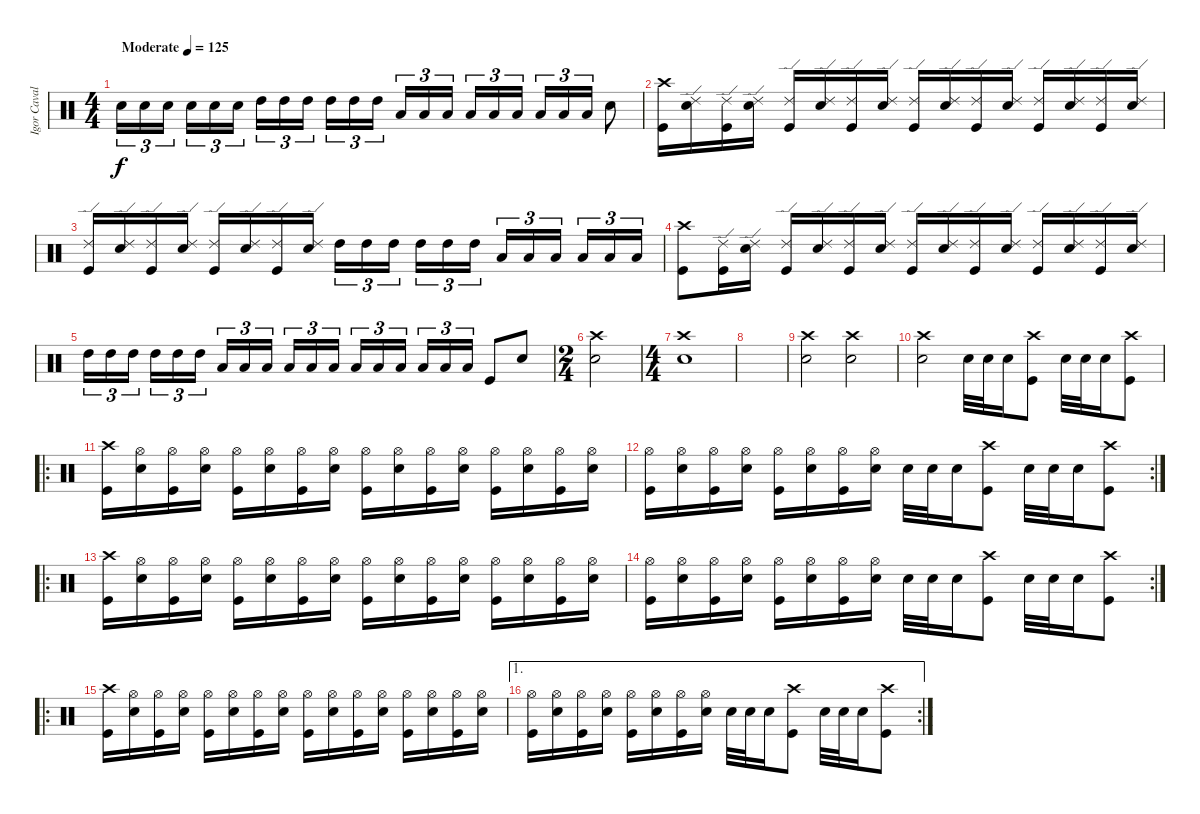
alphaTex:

\track ("Igor Cavalera" "Igor Caval") {instrument percussion}
\staff {score}
\articulation defaults
\ts (4 4)
\tempo (125 "Moderate")
\clef neutral
\ks c "Snare (hit) 2".16{tu (3 2) dy f} "Snare (hit) 2".16{tu (3 2)} "Snare (hit) 2".16{tu (3 2) beam splitsecondary} "Snare (hit) 2".16{tu (3 2)} "Snare (hit) 2".16{tu (3 2)} "Snare (hit) 2".16{tu (3 2)} "High Tom (hit)".16{tu (3 2)} "High Tom (hit)".16{tu (3 2)} "High Tom (hit)".16{tu (3 2) beam splitsecondary} "High Tom (hit)".16{tu (3 2)} "High Tom (hit)".16{tu (3 2)} "High Tom (hit)".16{tu (3 2)} "Low Tom (hit)".16{tu (3 2)} "Low Tom (hit)".16{tu (3 2)} "Low Tom (hit)".16{tu (3 2) beam splitsecondary} "Low Tom (hit)".16{tu (3 2)} "Low Tom (hit)".16{tu (3 2)} "Low Tom (hit)".16{tu (3 2)} "Low Floor Tom (hit)".16{tu (3 2)} "Low Floor Tom (hit)".16{tu (3 2)} "Low Floor Tom (hit)".16{tu (3 2)} "Snare (hit) 2".8
|
("Crash high (hit)" "Kick (hit)").16 ("Ride (edge) 2" "Snare (hit) 2").16 ("Ride (edge) 2" "Kick (hit)").16 ("Ride (edge) 2" "Snare (hit) 2").16 ("Ride (edge) 2" "Kick (hit)").16 ("Ride (edge) 2" "Snare (hit) 2").16 ("Ride (edge) 2" "Kick (hit)").16 ("Ride (edge) 2" "Snare (hit) 2").16 ("Ride (edge) 2" "Kick (hit)").16 ("Ride (edge) 2" "Snare (hit) 2").16 ("Ride (edge) 2" "Kick (hit)").16 ("Ride (edge) 2" "Snare (hit) 2").16 ("Ride (edge) 2" "Kick (hit)").16 ("Ride (edge) 2" "Snare (hit) 2").16 ("Ride (edge) 2" "Kick (hit)").16 ("Ride (edge) 2" "Snare (hit) 2").16 |
("Ride (edge) 2" "Kick (hit)").16 ("Ride (edge) 2" "Snare (hit) 2").16 ("Ride (edge) 2" "Kick (hit)").16 ("Ride (edge) 2" "Snare (hit) 2").16 ("Ride (edge) 2" "Kick (hit)").16 ("Ride (edge) 2" "Snare (hit) 2").16 ("Ride (edge) 2" "Kick (hit)").16 ("Ride (edge) 2" "Snare (hit) 2").16 "High Tom (hit)".16{tu (3 2)} "High Tom (hit)".16{tu (3 2)} "High Tom (hit)".16{tu (3 2) beam splitsecondary} "High Tom (hit)".16{tu (3 2)} "High Tom (hit)".16{tu (3 2)} "High Tom (hit)".16{tu (3 2)} "Low Tom (hit)".16{tu (3 2)} "Low Tom (hit)".16{tu (3 2)} "Low Tom (hit)".16{tu (3 2) beam splitsecondary} "Low Tom (hit)".16{tu (3 2)} "Low Tom (hit)".16{tu (3 2)} "Low Tom (hit)".16{tu (3 2)} |
("Crash high (hit)" "Kick (hit)").8 ("Ride (edge) 2" "Kick (hit)").16 ("Ride (edge) 2" "Snare (hit) 2").16 ("Ride (edge) 2" "Kick (hit)").16 ("Ride (edge) 2" "Snare (hit) 2").16 ("Ride (edge) 2" "Kick (hit)").16 ("Ride (edge) 2" "Snare (hit) 2").16 ("Ride (edge) 2" "Kick (hit)").16 ("Ride (edge) 2" "Snare (hit) 2").16 ("Ride (edge) 2" "Kick (hit)").16 ("Ride (edge) 2" "Snare (hit) 2").16 ("Ride (edge) 2" "Kick (hit)").16 ("Ride (edge) 2" "Snare (hit) 2").16 ("Ride (edge) 2" "Kick (hit)").16 ("Ride (edge) 2" "Snare (hit) 2").16 |
"High Tom (hit)".16{tu (3 2)} "High Tom (hit)".16{tu (3 2)} "High Tom (hit)".16{tu (3 2) beam splitsecondary} "High Tom (hit)".16{tu (3 2)} "High Tom (hit)".16{tu (3 2)} "High Tom (hit)".16{tu (3 2)} "Low Tom (hit)".16{tu (3 2)} "Low Tom (hit)".16{tu (3 2)} "Low Tom (hit)".16{tu (3 2) beam splitsecondary} "Low Tom (hit)".16{tu (3 2)} "Low Tom (hit)".16{tu (3 2)} "Low Tom (hit)".16{tu (3 2)} "Low Floor Tom (hit)".16{tu (3 2)} "Low Floor Tom (hit)".16{tu (3 2)} "Low Floor Tom (hit)".16{tu (3 2) beam splitsecondary} "Low Floor Tom (hit)".16{tu (3 2)} "Low Floor Tom (hit)".16{tu (3 2)} "Low Floor Tom (hit)".16{tu (3 2)} "Kick (hit)".8 "Snare (hit) 2".8 |
\ts (2 4)
("Crash high (hit)" "Snare (hit) 2").2 |
\ts (4 4)
("Crash high (hit)" "Snare (hit) 2").1 |
|
("Crash high (hit)" "Snare (hit) 2").2 ("Crash high (hit)" "Snare (hit) 2").2 |
("Crash high (hit)" "Snare (hit) 2").2 "Snare (hit) 2".32 "Snare (hit) 2".32 "Snare (hit) 2".16 ("Crash high (hit)" "Kick (hit)").8 "Snare (hit) 2".32 "Snare (hit) 2".32 "Snare (hit) 2".16 ("Crash high (hit)" "Kick (hit)").8 |
\ro
("Crash high (hit)" "Kick (hit)").16 ("Hi-Hat (open)" "Snare (hit) 2").16 ("Hi-Hat (open)" "Kick (hit)").16 ("Hi-Hat (open)" "Snare (hit) 2").16 ("Hi-Hat (open)" "Kick (hit)").16 ("Hi-Hat (open)" "Snare (hit) 2").16 ("Hi-Hat (open)" "Kick (hit)").16 ("Hi-Hat (open)" "Snare (hit) 2").16 ("Hi-Hat (open)" "Kick (hit)").16 ("Hi-Hat (open)" "Snare (hit) 2").16 ("Hi-Hat (open)" "Kick (hit)").16 ("Hi-Hat (open)" "Snare (hit) 2").16 ("Hi-Hat (open)" "Kick (hit)").16 ("Hi-Hat (open)" "Snare (hit) 2").16 ("Hi-Hat (open)" "Kick (hit)").16 ("Hi-Hat (open)" "Snare (hit) 2").16 |
\rc 2
("Hi-Hat (open)" "Kick (hit)").16 ("Hi-Hat (open)" "Snare (hit) 2").16 ("Hi-Hat (open)" "Kick (hit)").16 ("Hi-Hat (open)" "Snare (hit) 2").16 ("Hi-Hat (open)" "Kick (hit)").16 ("Hi-Hat (open)" "Snare (hit) 2").16 ("Hi-Hat (open)" "Kick (hit)").16 ("Hi-Hat (open)" "Snare (hit) 2").16 "Snare (hit) 2".32 "Snare (hit) 2".32 "Snare (hit) 2".16 ("Crash high (hit)" "Kick (hit)").8 "Snare (hit) 2".32 "Snare (hit) 2".32 "Snare (hit) 2".16 ("Crash high (hit)" "Kick (hit)").8 |
\ro
("Crash high (hit)" "Kick (hit)").16 ("Hi-Hat (open)" "Snare (hit) 2").16 ("Hi-Hat (open)" "Kick (hit)").16 ("Hi-Hat (open)" "Snare (hit) 2").16 ("Hi-Hat (open)" "Kick (hit)").16 ("Hi-Hat (open)" "Snare (hit) 2").16 ("Hi-Hat (open)" "Kick (hit)").16 ("Hi-Hat (open)" "Snare (hit) 2").16 ("Hi-Hat (open)" "Kick (hit)").16 ("Hi-Hat (open)" "Snare (hit) 2").16 ("Hi-Hat (open)" "Kick (hit)").16 ("Hi-Hat (open)" "Snare (hit) 2").16 ("Hi-Hat (open)" "Kick (hit)").16 ("Hi-Hat (open)" "Snare (hit) 2").16 ("Hi-Hat (open)" "Kick (hit)").16 ("Hi-Hat (open)" "Snare (hit) 2").16 |
\rc 2
("Hi-Hat (open)" "Kick (hit)").16 ("Hi-Hat (open)" "Snare (hit) 2").16 ("Hi-Hat (open)" "Kick (hit)").16 ("Hi-Hat (open)" "Snare (hit) 2").16 ("Hi-Hat (open)" "Kick (hit)").16 ("Hi-Hat (open)" "Snare (hit) 2").16 ("Hi-Hat (open)" "Kick (hit)").16 ("Hi-Hat (open)" "Snare (hit) 2").16 "Snare (hit) 2".32 "Snare (hit) 2".32 "Snare (hit) 2".16 ("Crash high (hit)" "Kick (hit)").8 "Snare (hit) 2".32 "Snare (hit) 2".32 "Snare (hit) 2".16 ("Crash high (hit)" "Kick (hit)").8 |
\ro
("Crash high (hit)" "Kick (hit)").16 ("Hi-Hat (open)" "Snare (hit) 2").16 ("Hi-Hat (open)" "Kick (hit)").16 ("Hi-Hat (open)" "Snare (hit) 2").16 ("Hi-Hat (open)" "Kick (hit)").16 ("Hi-Hat (open)" "Snare (hit) 2").16 ("Hi-Hat (open)" "Kick (hit)").16 ("Hi-Hat (open)" "Snare (hit) 2").16 ("Hi-Hat (open)" "Kick (hit)").16 ("Hi-Hat (open)" "Snare (hit) 2").16 ("Hi-Hat (open)" "Kick (hit)").16 ("Hi-Hat (open)" "Snare (hit) 2").16 ("Hi-Hat (open)" "Kick (hit)").16 ("Hi-Hat (open)" "Snare (hit) 2").16 ("Hi-Hat (open)" "Kick (hit)").16 ("Hi-Hat (open)" "Snare (hit) 2").16 |
\ae 1
\rc 2
("Hi-Hat (open)" "Kick (hit)").16 ("Hi-Hat (open)" "Snare (hit) 2").16 ("Hi-Hat (open)" "Kick (hit)").16 ("Hi-Hat (open)" "Snare (hit) 2").16 ("Hi-Hat (open)" "Kick (hit)").16 ("Hi-Hat (open)" "Snare (hit) 2").16 ("Hi-Hat (open)" "Kick (hit)").16 ("Hi-Hat (open)" "Snare (hit) 2").16 "Snare (hit) 2".32 "Snare (hit) 2".32 "Snare (hit) 2".16 ("Crash high (hit)" "Kick (hit)").8 "Snare (hit) 2".32 "Snare (hit) 2".32 "Snare (hit) 2".16 ("Crash high (hit)" "Kick (hit)").8
